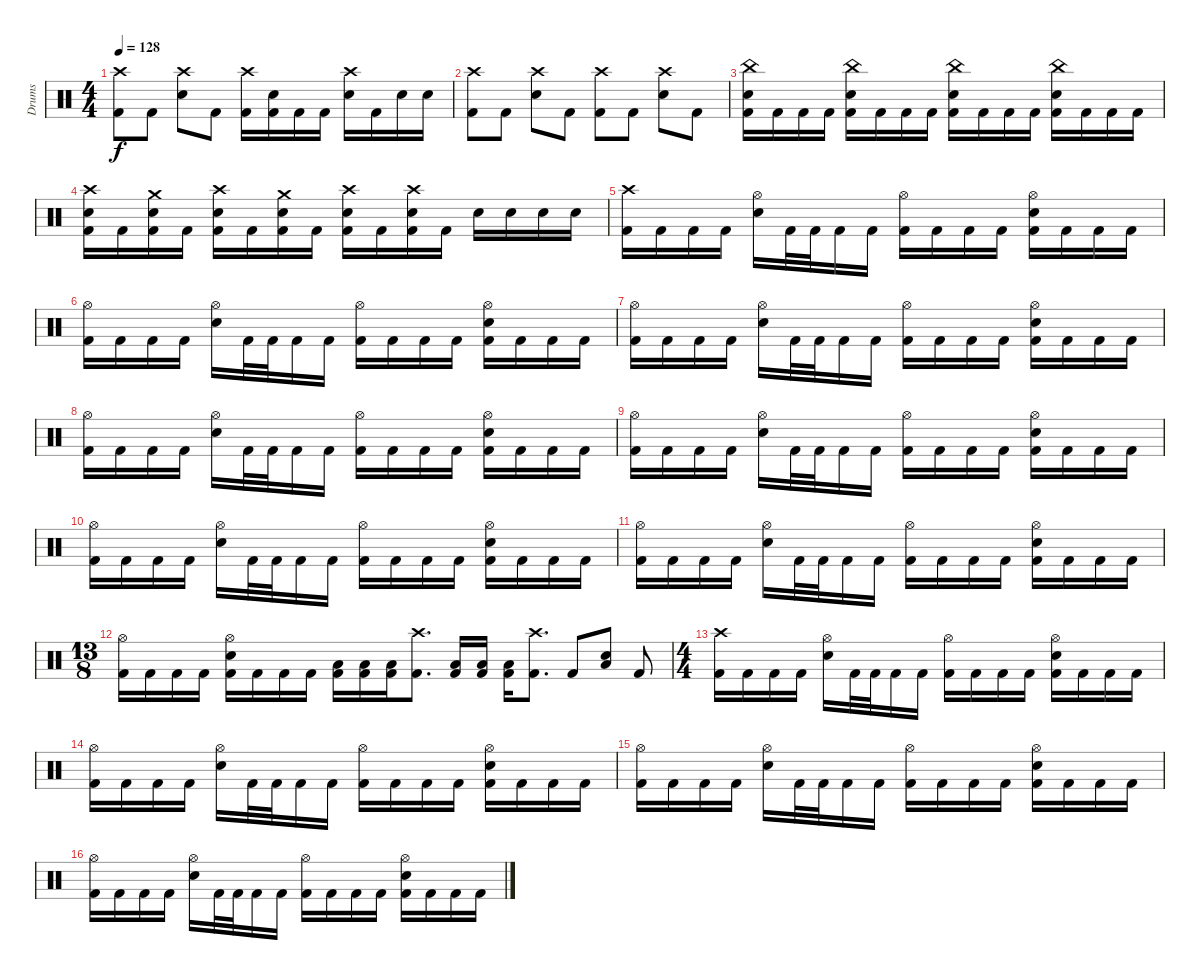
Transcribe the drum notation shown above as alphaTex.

\track ("Drums" "Drums") {instrument percussion}
\staff {score}
\articulation defaults
\ts (4 4)
\tempo 128
\clef neutral
\ks c
("Crash high (hit)" "Kick (hit) 2").8{dy f} "Kick (hit) 2".8 ("Crash high (hit)" "Electric Snare (hit)").8 "Kick (hit) 2".8 ("Crash high (hit)" "Kick (hit) 2").16 ("Electric Snare (hit)" "Kick (hit) 2").16 "Kick (hit) 2".16 "Kick (hit) 2".16 ("Crash high (hit)" "Electric Snare (hit)").16 "Kick (hit) 2".16 "Electric Snare (hit)".16 "Electric Snare (hit)".16 |
("Crash high (hit)" "Kick (hit) 2").8 "Kick (hit) 2".8 ("Crash high (hit)" "Electric Snare (hit)").8 "Kick (hit) 2".8 ("Crash high (hit)" "Kick (hit) 2").8 "Kick (hit) 2".8 ("Crash high (hit)" "Electric Snare (hit)").8 "Kick (hit) 2".8 |
("China (hit)" "Electric Snare (hit)" "Kick (hit) 2").16 "Kick (hit) 2".16 "Kick (hit) 2".16 "Kick (hit) 2".16 ("China (hit)" "Electric Snare (hit)" "Kick (hit) 2").16 "Kick (hit) 2".16 "Kick (hit) 2".16 "Kick (hit) 2".16 ("China (hit)" "Electric Snare (hit)" "Kick (hit) 2").16 "Kick (hit) 2".16 "Kick (hit) 2".16 "Kick (hit) 2".16 ("China (hit)" "Electric Snare (hit)" "Kick (hit) 2").16 "Kick (hit) 2".16 "Kick (hit) 2".16 "Kick (hit) 2".16 |
("Crash high (hit)" "Electric Snare (hit)" "Kick (hit) 2").16 "Kick (hit) 2".16 ("Crash medium (hit)" "Electric Snare (hit)" "Kick (hit) 2").16 "Kick (hit) 2".16 ("Crash high (hit)" "Electric Snare (hit)" "Kick (hit) 2").16 "Kick (hit) 2".16 ("Crash medium (hit)" "Electric Snare (hit)" "Kick (hit) 2").16 "Kick (hit) 2".16 ("Crash high (hit)" "Electric Snare (hit)" "Kick (hit) 2").16 "Kick (hit) 2".16 ("Crash high (hit)" "Electric Snare (hit)" "Kick (hit) 2").16 "Kick (hit) 2".16 "Electric Snare (hit)".16 "Electric Snare (hit)".16 "Electric Snare (hit)".16 "Electric Snare (hit)".16 |
("Crash high (hit)" "Kick (hit) 2").16 "Kick (hit) 2".16 "Kick (hit) 2".16 "Kick (hit) 2".16 ("Hi-Hat (open)" "Electric Snare (hit)").16 "Kick (hit) 2".32 "Kick (hit) 2".32 "Kick (hit) 2".16 "Kick (hit) 2".16 ("Hi-Hat (open)" "Kick (hit) 2").16 "Kick (hit) 2".16 "Kick (hit) 2".16 "Kick (hit) 2".16 ("Hi-Hat (open)" "Electric Snare (hit)" "Kick (hit) 2").16 "Kick (hit) 2".16 "Kick (hit) 2".16 "Kick (hit) 2".16 |
("Hi-Hat (open)" "Kick (hit) 2").16 "Kick (hit) 2".16 "Kick (hit) 2".16 "Kick (hit) 2".16 ("Hi-Hat (open)" "Electric Snare (hit)").16 "Kick (hit) 2".32 "Kick (hit) 2".32 "Kick (hit) 2".16 "Kick (hit) 2".16 ("Hi-Hat (open)" "Kick (hit) 2").16 "Kick (hit) 2".16 "Kick (hit) 2".16 "Kick (hit) 2".16 ("Hi-Hat (open)" "Electric Snare (hit)" "Kick (hit) 2").16 "Kick (hit) 2".16 "Kick (hit) 2".16 "Kick (hit) 2".16 |
("Hi-Hat (open)" "Kick (hit) 2").16 "Kick (hit) 2".16 "Kick (hit) 2".16 "Kick (hit) 2".16 ("Hi-Hat (open)" "Electric Snare (hit)").16 "Kick (hit) 2".32 "Kick (hit) 2".32 "Kick (hit) 2".16 "Kick (hit) 2".16 ("Hi-Hat (open)" "Kick (hit) 2").16 "Kick (hit) 2".16 "Kick (hit) 2".16 "Kick (hit) 2".16 ("Hi-Hat (open)" "Electric Snare (hit)" "Kick (hit) 2").16 "Kick (hit) 2".16 "Kick (hit) 2".16 "Kick (hit) 2".16 |
("Hi-Hat (open)" "Kick (hit) 2").16 "Kick (hit) 2".16 "Kick (hit) 2".16 "Kick (hit) 2".16 ("Hi-Hat (open)" "Electric Snare (hit)").16 "Kick (hit) 2".32 "Kick (hit) 2".32 "Kick (hit) 2".16 "Kick (hit) 2".16 ("Hi-Hat (open)" "Kick (hit) 2").16 "Kick (hit) 2".16 "Kick (hit) 2".16 "Kick (hit) 2".16 ("Hi-Hat (open)" "Electric Snare (hit)" "Kick (hit) 2").16 "Kick (hit) 2".16 "Kick (hit) 2".16 "Kick (hit) 2".16 |
("Hi-Hat (open)" "Kick (hit) 2").16 "Kick (hit) 2".16 "Kick (hit) 2".16 "Kick (hit) 2".16 ("Hi-Hat (open)" "Electric Snare (hit)").16 "Kick (hit) 2".32 "Kick (hit) 2".32 "Kick (hit) 2".16 "Kick (hit) 2".16 ("Hi-Hat (open)" "Kick (hit) 2").16 "Kick (hit) 2".16 "Kick (hit) 2".16 "Kick (hit) 2".16 ("Hi-Hat (open)" "Electric Snare (hit)" "Kick (hit) 2").16 "Kick (hit) 2".16 "Kick (hit) 2".16 "Kick (hit) 2".16 |
("Hi-Hat (open)" "Kick (hit) 2").16 "Kick (hit) 2".16 "Kick (hit) 2".16 "Kick (hit) 2".16 ("Hi-Hat (open)" "Electric Snare (hit)").16 "Kick (hit) 2".32 "Kick (hit) 2".32 "Kick (hit) 2".16 "Kick (hit) 2".16 ("Hi-Hat (open)" "Kick (hit) 2").16 "Kick (hit) 2".16 "Kick (hit) 2".16 "Kick (hit) 2".16 ("Hi-Hat (open)" "Electric Snare (hit)" "Kick (hit) 2").16 "Kick (hit) 2".16 "Kick (hit) 2".16 "Kick (hit) 2".16 |
("Hi-Hat (open)" "Kick (hit) 2").16 "Kick (hit) 2".16 "Kick (hit) 2".16 "Kick (hit) 2".16 ("Hi-Hat (open)" "Electric Snare (hit)").16 "Kick (hit) 2".32 "Kick (hit) 2".32 "Kick (hit) 2".16 "Kick (hit) 2".16 ("Hi-Hat (open)" "Kick (hit) 2").16 "Kick (hit) 2".16 "Kick (hit) 2".16 "Kick (hit) 2".16 ("Hi-Hat (open)" "Electric Snare (hit)" "Kick (hit) 2").16 "Kick (hit) 2".16 "Kick (hit) 2".16 "Kick (hit) 2".16 |
\ts (13 8)
("Hi-Hat (open)" "Kick (hit) 2").16 "Kick (hit) 2".16 "Kick (hit) 2".16 "Kick (hit) 2".16 ("Hi-Hat (open)" "Electric Snare (hit)" "Kick (hit) 2").16 "Kick (hit) 2".16 "Kick (hit) 2".16 "Kick (hit) 2".16 ("Low Tom (hit)" "Kick (hit) 2").16 ("Low Tom (hit)" "Kick (hit) 2").16 ("Low Tom (hit)" "Kick (hit) 2").16 ("Crash high (hit)" "Kick (hit) 2").8{d} ("Low Tom (hit)" "Kick (hit) 2").16 ("Low Tom (hit)" "Kick (hit) 2").16 ("Low Tom (hit)" "Kick (hit) 2").16 ("Crash high (hit)" "Kick (hit) 2").8{d} "Kick (hit) 2".8 ("Low Floor Tom (hit)" "Electric Snare (hit)").8 "Kick (hit) 2".8 |
\ts (4 4)
("Crash high (hit)" "Kick (hit) 2").16 "Kick (hit) 2".16 "Kick (hit) 2".16 "Kick (hit) 2".16 ("Hi-Hat (open)" "Electric Snare (hit)").16 "Kick (hit) 2".32 "Kick (hit) 2".32 "Kick (hit) 2".16 "Kick (hit) 2".16 ("Hi-Hat (open)" "Kick (hit) 2").16 "Kick (hit) 2".16 "Kick (hit) 2".16 "Kick (hit) 2".16 ("Hi-Hat (open)" "Electric Snare (hit)" "Kick (hit) 2").16 "Kick (hit) 2".16 "Kick (hit) 2".16 "Kick (hit) 2".16 |
("Hi-Hat (open)" "Kick (hit) 2").16 "Kick (hit) 2".16 "Kick (hit) 2".16 "Kick (hit) 2".16 ("Hi-Hat (open)" "Electric Snare (hit)").16 "Kick (hit) 2".32 "Kick (hit) 2".32 "Kick (hit) 2".16 "Kick (hit) 2".16 ("Hi-Hat (open)" "Kick (hit) 2").16 "Kick (hit) 2".16 "Kick (hit) 2".16 "Kick (hit) 2".16 ("Hi-Hat (open)" "Electric Snare (hit)" "Kick (hit) 2").16 "Kick (hit) 2".16 "Kick (hit) 2".16 "Kick (hit) 2".16 |
("Hi-Hat (open)" "Kick (hit) 2").16 "Kick (hit) 2".16 "Kick (hit) 2".16 "Kick (hit) 2".16 ("Hi-Hat (open)" "Electric Snare (hit)").16 "Kick (hit) 2".32 "Kick (hit) 2".32 "Kick (hit) 2".16 "Kick (hit) 2".16 ("Hi-Hat (open)" "Kick (hit) 2").16 "Kick (hit) 2".16 "Kick (hit) 2".16 "Kick (hit) 2".16 ("Hi-Hat (open)" "Electric Snare (hit)" "Kick (hit) 2").16 "Kick (hit) 2".16 "Kick (hit) 2".16 "Kick (hit) 2".16 |
("Hi-Hat (open)" "Kick (hit) 2").16 "Kick (hit) 2".16 "Kick (hit) 2".16 "Kick (hit) 2".16 ("Hi-Hat (open)" "Electric Snare (hit)").16 "Kick (hit) 2".32 "Kick (hit) 2".32 "Kick (hit) 2".16 "Kick (hit) 2".16 ("Hi-Hat (open)" "Kick (hit) 2").16 "Kick (hit) 2".16 "Kick (hit) 2".16 "Kick (hit) 2".16 ("Hi-Hat (open)" "Electric Snare (hit)" "Kick (hit) 2").16 "Kick (hit) 2".16 "Kick (hit) 2".16 "Kick (hit) 2".16
